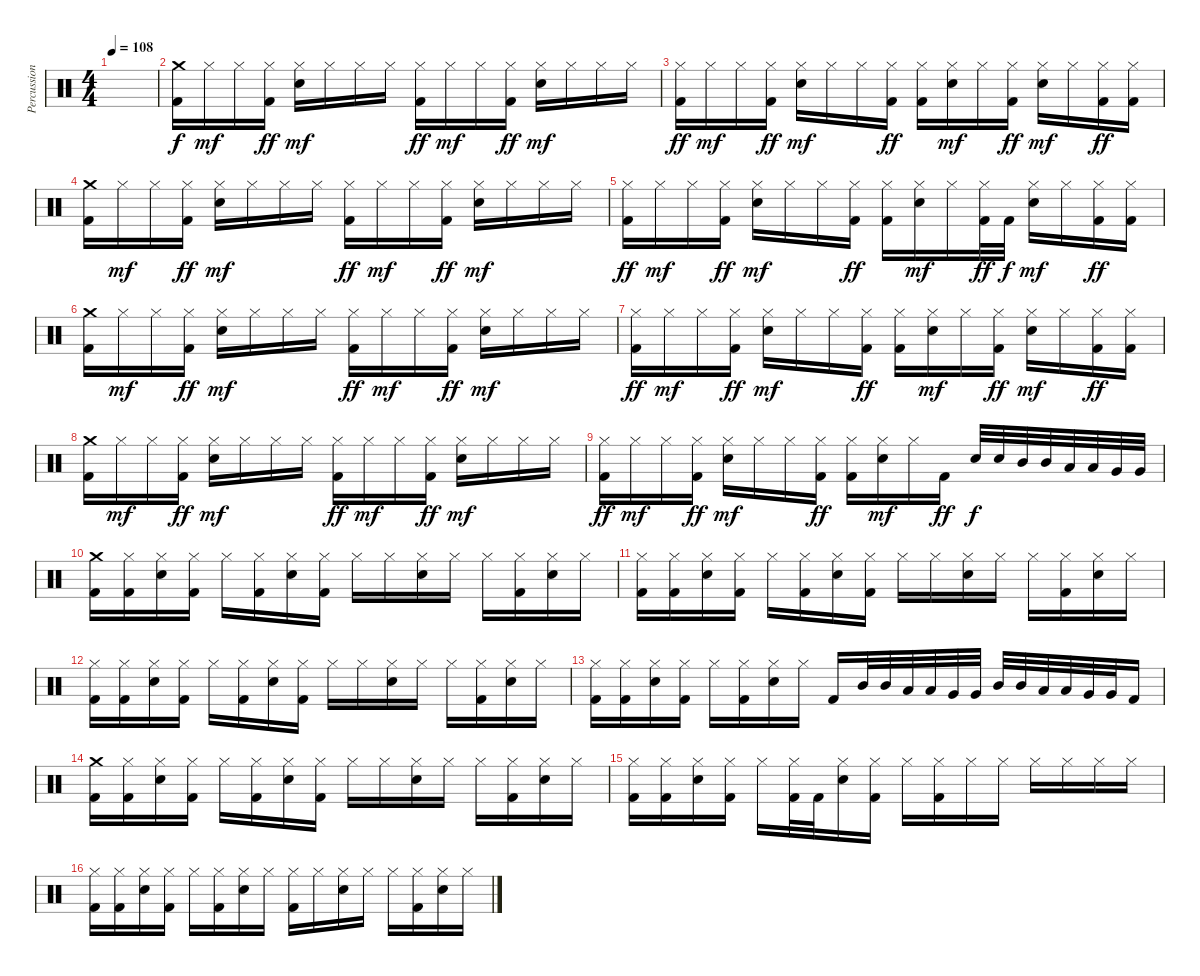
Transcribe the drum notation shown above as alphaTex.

\track ("Percussions" "Percussion") {instrument percussion}
\staff {score}
\articulation defaults
\ts (4 4)
\tempo 108
\clef neutral
\ks c
|
("Crash medium (hit)" "Kick (hit) 2").16 "Hi-Hat (closed)".16{dy mf} "Hi-Hat (closed)".16 ("Hi-Hat (closed)" "Kick (hit) 2").16{dy ff} ("Hi-Hat (closed)" "Electric Snare (hit)").16{dy mf} "Hi-Hat (closed)".16 "Hi-Hat (closed)".16 "Hi-Hat (closed)".16 ("Hi-Hat (closed)" "Kick (hit) 2").16{dy ff} "Hi-Hat (closed)".16{dy mf} "Hi-Hat (closed)".16 ("Hi-Hat (closed)" "Kick (hit) 2").16{dy ff} ("Hi-Hat (closed)" "Electric Snare (hit)").16{dy mf} "Hi-Hat (closed)".16 "Hi-Hat (closed)".16 "Hi-Hat (closed)".16 |
("Hi-Hat (closed)" "Kick (hit) 2").16{dy ff} "Hi-Hat (closed)".16{dy mf} "Hi-Hat (closed)".16 ("Hi-Hat (closed)" "Kick (hit) 2").16{dy ff} ("Hi-Hat (closed)" "Electric Snare (hit)").16{dy mf} "Hi-Hat (closed)".16 "Hi-Hat (closed)".16 ("Hi-Hat (closed)" "Kick (hit) 2").16{dy ff} ("Hi-Hat (closed)" "Kick (hit) 2").16 ("Hi-Hat (closed)" "Electric Snare (hit)").16{dy mf} "Hi-Hat (closed)".16 ("Hi-Hat (closed)" "Kick (hit) 2").16{dy ff} ("Hi-Hat (closed)" "Electric Snare (hit)").16{dy mf} "Hi-Hat (closed)".16 ("Hi-Hat (closed)" "Kick (hit) 2").16{dy ff} ("Hi-Hat (closed)" "Kick (hit) 2").16 |
("Crash medium (hit)" "Kick (hit) 2").16 "Hi-Hat (closed)".16{dy mf} "Hi-Hat (closed)".16 ("Hi-Hat (closed)" "Kick (hit) 2").16{dy ff} ("Hi-Hat (closed)" "Electric Snare (hit)").16{dy mf} "Hi-Hat (closed)".16 "Hi-Hat (closed)".16 "Hi-Hat (closed)".16 ("Hi-Hat (closed)" "Kick (hit) 2").16{dy ff} "Hi-Hat (closed)".16{dy mf} "Hi-Hat (closed)".16 ("Hi-Hat (closed)" "Kick (hit) 2").16{dy ff} ("Hi-Hat (closed)" "Electric Snare (hit)").16{dy mf} "Hi-Hat (closed)".16 "Hi-Hat (closed)".16 "Hi-Hat (closed)".16 |
("Hi-Hat (closed)" "Kick (hit) 2").16{dy ff} "Hi-Hat (closed)".16{dy mf} "Hi-Hat (closed)".16 ("Hi-Hat (closed)" "Kick (hit) 2").16{dy ff} ("Hi-Hat (closed)" "Electric Snare (hit)").16{dy mf} "Hi-Hat (closed)".16 "Hi-Hat (closed)".16 ("Hi-Hat (closed)" "Kick (hit) 2").16{dy ff} ("Hi-Hat (closed)" "Kick (hit) 2").16 ("Hi-Hat (closed)" "Electric Snare (hit)").16{dy mf} "Hi-Hat (closed)".16 ("Hi-Hat (closed)" "Kick (hit) 2").32{dy ff} "Kick (hit) 2".32{dy f} ("Hi-Hat (closed)" "Electric Snare (hit)").16{dy mf} "Hi-Hat (closed)".16 ("Hi-Hat (closed)" "Kick (hit) 2").16{dy ff} ("Hi-Hat (closed)" "Kick (hit) 2").16 |
("Crash medium (hit)" "Kick (hit) 2").16 "Hi-Hat (closed)".16{dy mf} "Hi-Hat (closed)".16 ("Hi-Hat (closed)" "Kick (hit) 2").16{dy ff} ("Hi-Hat (closed)" "Electric Snare (hit)").16{dy mf} "Hi-Hat (closed)".16 "Hi-Hat (closed)".16 "Hi-Hat (closed)".16 ("Hi-Hat (closed)" "Kick (hit) 2").16{dy ff} "Hi-Hat (closed)".16{dy mf} "Hi-Hat (closed)".16 ("Hi-Hat (closed)" "Kick (hit) 2").16{dy ff} ("Hi-Hat (closed)" "Electric Snare (hit)").16{dy mf} "Hi-Hat (closed)".16 "Hi-Hat (closed)".16 "Hi-Hat (closed)".16 |
("Hi-Hat (closed)" "Kick (hit) 2").16{dy ff} "Hi-Hat (closed)".16{dy mf} "Hi-Hat (closed)".16 ("Hi-Hat (closed)" "Kick (hit) 2").16{dy ff} ("Hi-Hat (closed)" "Electric Snare (hit)").16{dy mf} "Hi-Hat (closed)".16 "Hi-Hat (closed)".16 ("Hi-Hat (closed)" "Kick (hit) 2").16{dy ff} ("Hi-Hat (closed)" "Kick (hit) 2").16 ("Hi-Hat (closed)" "Electric Snare (hit)").16{dy mf} "Hi-Hat (closed)".16 ("Hi-Hat (closed)" "Kick (hit) 2").16{dy ff} ("Hi-Hat (closed)" "Electric Snare (hit)").16{dy mf} "Hi-Hat (closed)".16 ("Hi-Hat (closed)" "Kick (hit) 2").16{dy ff} ("Hi-Hat (closed)" "Kick (hit) 2").16 |
("Crash medium (hit)" "Kick (hit) 2").16 "Hi-Hat (closed)".16{dy mf} "Hi-Hat (closed)".16 ("Hi-Hat (closed)" "Kick (hit) 2").16{dy ff} ("Hi-Hat (closed)" "Electric Snare (hit)").16{dy mf} "Hi-Hat (closed)".16 "Hi-Hat (closed)".16 "Hi-Hat (closed)".16 ("Hi-Hat (closed)" "Kick (hit) 2").16{dy ff} "Hi-Hat (closed)".16{dy mf} "Hi-Hat (closed)".16 ("Hi-Hat (closed)" "Kick (hit) 2").16{dy ff} ("Hi-Hat (closed)" "Electric Snare (hit)").16{dy mf} "Hi-Hat (closed)".16 "Hi-Hat (closed)".16 "Hi-Hat (closed)".16 |
("Hi-Hat (closed)" "Kick (hit) 2").16{dy ff} "Hi-Hat (closed)".16{dy mf} "Hi-Hat (closed)".16 ("Hi-Hat (closed)" "Kick (hit) 2").16{dy ff} ("Hi-Hat (closed)" "Electric Snare (hit)").16{dy mf} "Hi-Hat (closed)".16 "Hi-Hat (closed)".16 ("Hi-Hat (closed)" "Kick (hit) 2").16{dy ff} ("Hi-Hat (closed)" "Kick (hit) 2").16 ("Hi-Hat (closed)" "Electric Snare (hit)").16{dy mf} "Hi-Hat (closed)".16 "Kick (hit) 2".16{dy ff} "Electric Snare (hit)".32{dy f} "Electric Snare (hit)".32 "Mid Tom (hit)".32 "Mid Tom (hit)".32 "Low Tom (hit)".32 "Low Tom (hit)".32 "Very Low Tom (hit)".32 "Very Low Tom (hit)".32 |
("Crash medium (hit)" "Kick (hit) 2").16 ("Hi-Hat (closed)" "Kick (hit) 2").16 ("Hi-Hat (closed)" "Electric Snare (hit)").16 ("Hi-Hat (closed)" "Kick (hit) 2").16 "Hi-Hat (closed)".16 ("Hi-Hat (closed)" "Kick (hit) 2").16 ("Hi-Hat (closed)" "Electric Snare (hit)").16 ("Hi-Hat (closed)" "Kick (hit) 2").16 "Hi-Hat (closed)".16 "Hi-Hat (closed)".16 ("Hi-Hat (closed)" "Electric Snare (hit)").16 "Hi-Hat (closed)".16 "Hi-Hat (closed)".16 ("Hi-Hat (closed)" "Kick (hit) 2").16 ("Hi-Hat (closed)" "Electric Snare (hit)").16 "Hi-Hat (closed)".16 |
("Hi-Hat (closed)" "Kick (hit) 2").16 ("Hi-Hat (closed)" "Kick (hit) 2").16 ("Hi-Hat (closed)" "Electric Snare (hit)").16 ("Hi-Hat (closed)" "Kick (hit) 2").16 "Hi-Hat (closed)".16 ("Hi-Hat (closed)" "Kick (hit) 2").16 ("Hi-Hat (closed)" "Electric Snare (hit)").16 ("Hi-Hat (closed)" "Kick (hit) 2").16 "Hi-Hat (closed)".16 "Hi-Hat (closed)".16 ("Hi-Hat (closed)" "Electric Snare (hit)").16 "Hi-Hat (closed)".16 "Hi-Hat (closed)".16 ("Hi-Hat (closed)" "Kick (hit) 2").16 ("Hi-Hat (closed)" "Electric Snare (hit)").16 "Hi-Hat (closed)".16 |
("Hi-Hat (closed)" "Kick (hit) 2").16 ("Hi-Hat (closed)" "Kick (hit) 2").16 ("Hi-Hat (closed)" "Electric Snare (hit)").16 ("Hi-Hat (closed)" "Kick (hit) 2").16 "Hi-Hat (closed)".16 ("Hi-Hat (closed)" "Kick (hit) 2").16 ("Hi-Hat (closed)" "Electric Snare (hit)").16 ("Hi-Hat (closed)" "Kick (hit) 2").16 "Hi-Hat (closed)".16 "Hi-Hat (closed)".16 ("Hi-Hat (closed)" "Electric Snare (hit)").16 "Hi-Hat (closed)".16 "Hi-Hat (closed)".16 ("Hi-Hat (closed)" "Kick (hit) 2").16 ("Hi-Hat (closed)" "Electric Snare (hit)").16 "Hi-Hat (closed)".16 |
("Hi-Hat (closed)" "Kick (hit) 2").16 ("Hi-Hat (closed)" "Kick (hit) 2").16 ("Hi-Hat (closed)" "Electric Snare (hit)").16 ("Hi-Hat (closed)" "Kick (hit) 2").16 "Hi-Hat (closed)".16 ("Hi-Hat (closed)" "Kick (hit) 2").16 ("Hi-Hat (closed)" "Electric Snare (hit)").16 "Hi-Hat (closed)".16 "Kick (hit) 2".16 "Mid Tom (hit)".32 "Mid Tom (hit)".32 "Low Tom (hit)".32 "Low Tom (hit)".32 "Very Low Tom (hit)".32 "Very Low Tom (hit)".32 "Mid Tom (hit)".32 "Mid Tom (hit)".32 "Low Tom (hit)".32 "Low Tom (hit)".32 "Very Low Tom (hit)".32 "Very Low Tom (hit)".32 "Kick (hit) 2".16 |
("Crash medium (hit)" "Kick (hit) 2").16 ("Hi-Hat (closed)" "Kick (hit) 2").16 ("Hi-Hat (closed)" "Electric Snare (hit)").16 ("Hi-Hat (closed)" "Kick (hit) 2").16 "Hi-Hat (closed)".16 ("Hi-Hat (closed)" "Kick (hit) 2").16 ("Hi-Hat (closed)" "Electric Snare (hit)").16 ("Hi-Hat (closed)" "Kick (hit) 2").16 "Hi-Hat (closed)".16 "Hi-Hat (closed)".16 ("Hi-Hat (closed)" "Electric Snare (hit)").16 "Hi-Hat (closed)".16 "Hi-Hat (closed)".16 ("Hi-Hat (closed)" "Kick (hit) 2").16 ("Hi-Hat (closed)" "Electric Snare (hit)").16 "Hi-Hat (closed)".16 |
("Hi-Hat (closed)" "Kick (hit) 2").16 ("Hi-Hat (closed)" "Kick (hit) 2").16 ("Hi-Hat (closed)" "Electric Snare (hit)").16 ("Hi-Hat (closed)" "Kick (hit) 2").16 "Hi-Hat (closed)".16 ("Hi-Hat (closed)" "Kick (hit) 2").32 "Kick (hit) 2".32 ("Hi-Hat (closed)" "Electric Snare (hit)").16 ("Hi-Hat (closed)" "Kick (hit) 2").16 "Hi-Hat (closed)".16 ("Hi-Hat (closed)" "Kick (hit) 2").16 "Hi-Hat (closed)".16 "Hi-Hat (closed)".16 "Hi-Hat (closed)".16 "Hi-Hat (closed)".16 "Hi-Hat (closed)".16 "Hi-Hat (closed)".16 |
("Hi-Hat (closed)" "Kick (hit) 2").16 ("Hi-Hat (closed)" "Kick (hit) 2").16 ("Hi-Hat (closed)" "Electric Snare (hit)").16 ("Hi-Hat (closed)" "Kick (hit) 2").16 "Hi-Hat (closed)".16 ("Hi-Hat (closed)" "Kick (hit) 2").16 ("Hi-Hat (closed)" "Electric Snare (hit)").16 "Hi-Hat (closed)".16 ("Hi-Hat (closed)" "Kick (hit) 2").16 "Hi-Hat (closed)".16 ("Hi-Hat (closed)" "Electric Snare (hit)").16 "Hi-Hat (closed)".16 "Hi-Hat (closed)".16 ("Hi-Hat (closed)" "Kick (hit) 2").16 ("Hi-Hat (closed)" "Electric Snare (hit)").16 "Hi-Hat (closed)".16
